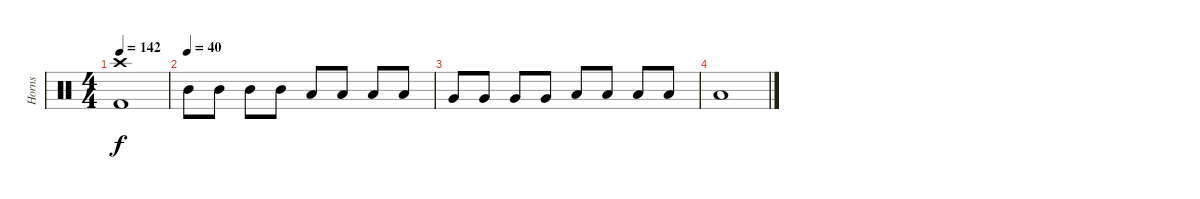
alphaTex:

\track ("Horns" "Horns") {instrument percussion}
\staff {score}
\articulation defaults
\ts (4 4)
\tempo 142
\clef neutral
\ks c
("Crash high (hit)" "Kick (hit) 2").1{dy f} |
\tempo (40)
"Mid Tom (hit)".8 "Mid Tom (hit)".8 "Mid Tom (hit)".8 "Mid Tom (hit)".8 "Low Tom (hit)".8 "Low Tom (hit)".8 "Low Tom (hit)".8 "Low Tom (hit)".8 |
"Very Low Tom (hit)".8 "Very Low Tom (hit)".8 "Very Low Tom (hit)".8 "Very Low Tom (hit)".8 "Low Floor Tom (hit)".8 "Low Floor Tom (hit)".8 "Low Floor Tom (hit)".8 "Low Floor Tom (hit)".8 |
"Low Floor Tom (hit)".1
